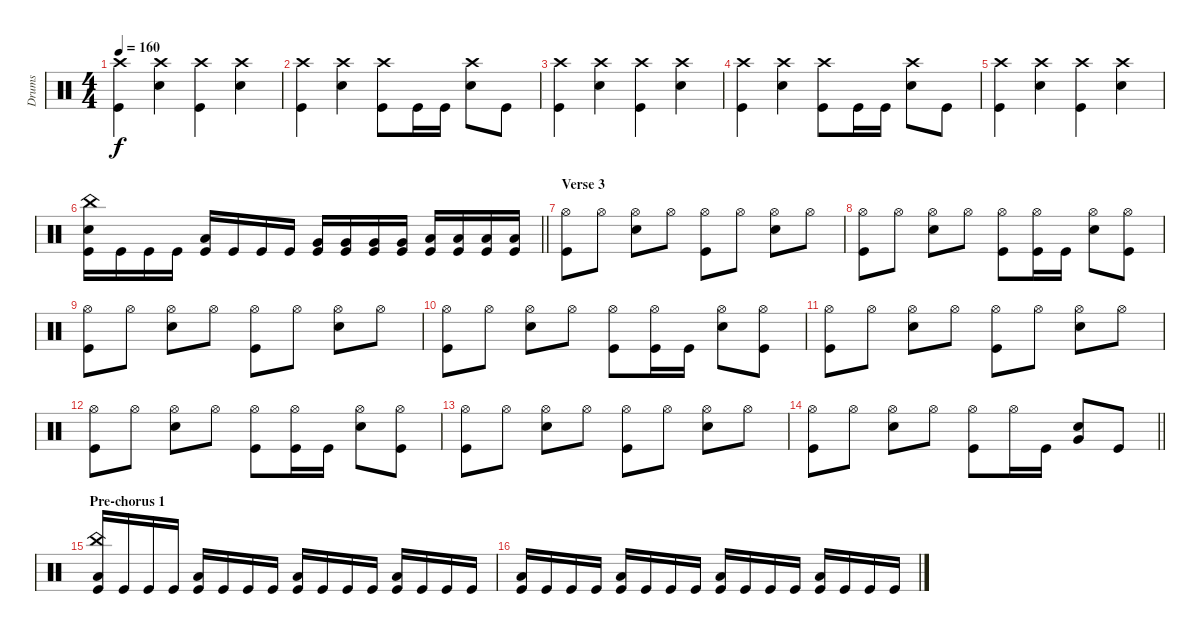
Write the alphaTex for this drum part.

\track ("Drums" "Drums") {instrument percussion}
\staff {score}
\articulation defaults
\ts (4 4)
\tempo 160
\clef neutral
\ks c
("Kick (hit)" "Crash high (hit)").4{dy f} ("Snare (hit) 2" "Crash high (hit)").4 ("Kick (hit)" "Crash high (hit)").4 ("Snare (hit) 2" "Crash high (hit)").4 |
("Kick (hit)" "Crash high (hit)").4 ("Snare (hit) 2" "Crash high (hit)").4 ("Kick (hit)" "Crash high (hit)").8 "Kick (hit)".16 "Kick (hit)".16 ("Snare (hit) 2" "Crash high (hit)").8 "Kick (hit)".8 |
("Kick (hit)" "Crash high (hit)").4 ("Snare (hit) 2" "Crash high (hit)").4 ("Kick (hit)" "Crash high (hit)").4 ("Snare (hit) 2" "Crash high (hit)").4 |
("Kick (hit)" "Crash high (hit)").4 ("Snare (hit) 2" "Crash high (hit)").4 ("Kick (hit)" "Crash high (hit)").8 "Kick (hit)".16 "Kick (hit)".16 ("Snare (hit) 2" "Crash high (hit)").8 "Kick (hit)".8 |
("Kick (hit)" "Crash high (hit)").4 ("Snare (hit) 2" "Crash high (hit)").4 ("Kick (hit)" "Crash high (hit)").4 ("Snare (hit) 2" "Crash high (hit)").4 |
\barLineRight lightlight
("Kick (hit)" "China (hit)" "Snare (hit) 2").16 "Kick (hit)".16 "Kick (hit)".16 "Kick (hit)".16 ("Kick (hit)" "Low Tom (hit)").16 "Kick (hit)".16 "Kick (hit)".16 "Kick (hit)".16 ("Kick (hit)" "Very Low Tom (hit)").16 ("Kick (hit)" "Very Low Tom (hit)").16 ("Kick (hit)" "Very Low Tom (hit)").16 ("Kick (hit)" "Very Low Tom (hit)").16 ("Kick (hit)" "Low Floor Tom (hit)").16 ("Kick (hit)" "Low Floor Tom (hit)").16 ("Kick (hit)" "Low Floor Tom (hit)").16 ("Kick (hit)" "Low Floor Tom (hit)").16 |
\section ("" "Verse 3")
("Kick (hit)" "Hi-Hat (open)").8 "Hi-Hat (open)".8 ("Snare (hit) 2" "Hi-Hat (open)").8 "Hi-Hat (open)".8 ("Kick (hit)" "Hi-Hat (open)").8 "Hi-Hat (open)".8 ("Snare (hit) 2" "Hi-Hat (open)").8 "Hi-Hat (open)".8 |
("Kick (hit)" "Hi-Hat (open)").8 "Hi-Hat (open)".8 ("Snare (hit) 2" "Hi-Hat (open)").8 "Hi-Hat (open)".8 ("Kick (hit)" "Hi-Hat (open)").8 ("Hi-Hat (open)" "Kick (hit)").16 "Kick (hit)".16 ("Snare (hit) 2" "Hi-Hat (open)").8 ("Hi-Hat (open)" "Kick (hit)").8 |
("Kick (hit)" "Hi-Hat (open)").8 "Hi-Hat (open)".8 ("Snare (hit) 2" "Hi-Hat (open)").8 "Hi-Hat (open)".8 ("Kick (hit)" "Hi-Hat (open)").8 "Hi-Hat (open)".8 ("Snare (hit) 2" "Hi-Hat (open)").8 "Hi-Hat (open)".8 |
("Kick (hit)" "Hi-Hat (open)").8 "Hi-Hat (open)".8 ("Snare (hit) 2" "Hi-Hat (open)").8 "Hi-Hat (open)".8 ("Kick (hit)" "Hi-Hat (open)").8 ("Hi-Hat (open)" "Kick (hit)").16 "Kick (hit)".16 ("Snare (hit) 2" "Hi-Hat (open)").8 ("Kick (hit)" "Hi-Hat (open)").8 |
("Kick (hit)" "Hi-Hat (open)").8 "Hi-Hat (open)".8 ("Snare (hit) 2" "Hi-Hat (open)").8 "Hi-Hat (open)".8 ("Kick (hit)" "Hi-Hat (open)").8 "Hi-Hat (open)".8 ("Snare (hit) 2" "Hi-Hat (open)").8 "Hi-Hat (open)".8 |
("Kick (hit)" "Hi-Hat (open)").8 "Hi-Hat (open)".8 ("Snare (hit) 2" "Hi-Hat (open)").8 "Hi-Hat (open)".8 ("Kick (hit)" "Hi-Hat (open)").8 ("Hi-Hat (open)" "Kick (hit)").16 "Kick (hit)".16 ("Snare (hit) 2" "Hi-Hat (open)").8 ("Kick (hit)" "Hi-Hat (open)").8 |
("Kick (hit)" "Hi-Hat (open)").8 "Hi-Hat (open)".8 ("Snare (hit) 2" "Hi-Hat (open)").8 "Hi-Hat (open)".8 ("Kick (hit)" "Hi-Hat (open)").8 "Hi-Hat (open)".8 ("Snare (hit) 2" "Hi-Hat (open)").8 "Hi-Hat (open)".8 |
\barLineRight lightlight
("Kick (hit)" "Hi-Hat (open)").8 "Hi-Hat (open)".8 ("Snare (hit) 2" "Hi-Hat (open)").8 "Hi-Hat (open)".8 ("Kick (hit)" "Hi-Hat (open)").8 "Hi-Hat (open)".16 "Kick (hit)".16 ("Snare (hit) 2" "Very Low Tom (hit)").8 "Kick (hit)".8 |
\section ("" "Pre-chorus 1")
("Kick (hit)" "China (hit)" "Low Floor Tom (hit)").16 "Kick (hit)".16 "Kick (hit)".16 "Kick (hit)".16 ("Kick (hit)" "Low Floor Tom (hit)").16 "Kick (hit)".16 "Kick (hit)".16 "Kick (hit)".16 ("Kick (hit)" "Low Floor Tom (hit)").16 "Kick (hit)".16 "Kick (hit)".16 "Kick (hit)".16 ("Kick (hit)" "Low Floor Tom (hit)").16 "Kick (hit)".16 "Kick (hit)".16 "Kick (hit)".16 |
("Kick (hit)" "Low Floor Tom (hit)").16 "Kick (hit)".16 "Kick (hit)".16 "Kick (hit)".16 ("Kick (hit)" "Low Floor Tom (hit)").16 "Kick (hit)".16 "Kick (hit)".16 "Kick (hit)".16 ("Kick (hit)" "Low Floor Tom (hit)").16 "Kick (hit)".16 "Kick (hit)".16 "Kick (hit)".16 ("Kick (hit)" "Low Floor Tom (hit)").16 "Kick (hit)".16 "Kick (hit)".16 "Kick (hit)".16
